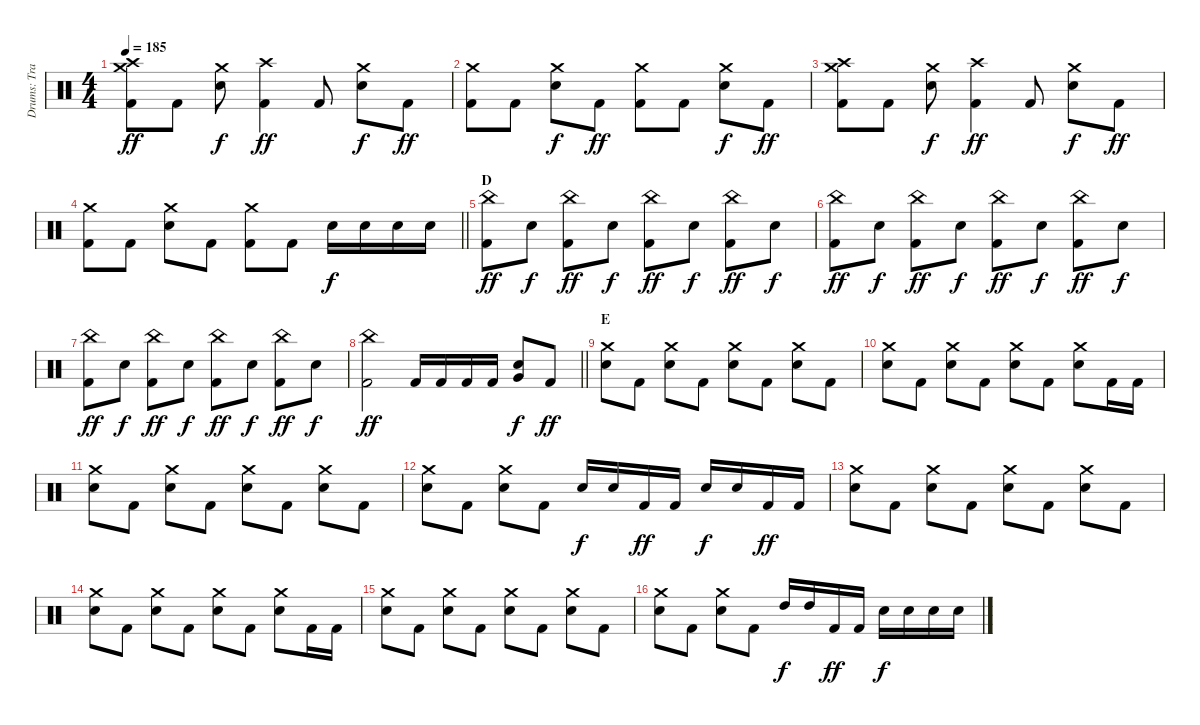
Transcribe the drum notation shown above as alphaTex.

\track ("Drums: Travis Clarke" "Drums: Tra") {instrument percussion}
\staff {score}
\articulation defaults
\ts (4 4)
\tempo 185
\clef neutral
\ks c
("Kick (hit) 2" "Crash high (hit)" "Crash medium (hit)").8{dy ff} "Kick (hit) 2".8 ("Snare (hit) 2" "Crash medium (hit)").8{dy f} ("Kick (hit) 2" "Crash high (hit)").4{dy ff} "Kick (hit) 2".8 ("Snare (hit) 2" "Crash medium (hit)").8{dy f} "Kick (hit) 2".8{dy ff} |
("Kick (hit) 2" "Crash medium (hit)").8 "Kick (hit) 2".8 ("Snare (hit) 2" "Crash medium (hit)").8{dy f} "Kick (hit) 2".8{dy ff} ("Kick (hit) 2" "Crash medium (hit)").8 "Kick (hit) 2".8 ("Snare (hit) 2" "Crash medium (hit)").8{dy f} "Kick (hit) 2".8{dy ff} |
("Kick (hit) 2" "Crash high (hit)" "Crash medium (hit)").8 "Kick (hit) 2".8 ("Snare (hit) 2" "Crash medium (hit)").8{dy f} ("Kick (hit) 2" "Crash high (hit)").4{dy ff} "Kick (hit) 2".8 ("Snare (hit) 2" "Crash medium (hit)").8{dy f} "Kick (hit) 2".8{dy ff} |
\barLineRight lightlight
("Kick (hit) 2" "Crash medium (hit)").8 "Kick (hit) 2".8 ("Snare (hit) 2" "Crash medium (hit)").8 "Kick (hit) 2".8 ("Kick (hit) 2" "Crash medium (hit)").8 "Kick (hit) 2".8 "Snare (hit) 2".16{dy f} "Snare (hit) 2".16 "Snare (hit) 2".16 "Snare (hit) 2".16 |
\section ("" "D")
("Kick (hit) 2" "China (hit)").8{dy ff} "Snare (hit) 2".8{dy f} ("Kick (hit) 2" "China (hit)").8{dy ff} "Snare (hit) 2".8{dy f} ("Kick (hit) 2" "China (hit)").8{dy ff} "Snare (hit) 2".8{dy f} ("Kick (hit) 2" "China (hit)").8{dy ff} "Snare (hit) 2".8{dy f} |
("Kick (hit) 2" "China (hit)").8{dy ff} "Snare (hit) 2".8{dy f} ("Kick (hit) 2" "China (hit)").8{dy ff} "Snare (hit) 2".8{dy f} ("Kick (hit) 2" "China (hit)").8{dy ff} "Snare (hit) 2".8{dy f} ("Kick (hit) 2" "China (hit)").8{dy ff} "Snare (hit) 2".8{dy f} |
("Kick (hit) 2" "China (hit)").8{dy ff} "Snare (hit) 2".8{dy f} ("Kick (hit) 2" "China (hit)").8{dy ff} "Snare (hit) 2".8{dy f} ("Kick (hit) 2" "China (hit)").8{dy ff} "Snare (hit) 2".8{dy f} ("Kick (hit) 2" "China (hit)").8{dy ff} "Snare (hit) 2".8{dy f} |
\barLineRight lightlight
("Kick (hit) 2" "China (hit)").2{dy ff} "Kick (hit) 2".16 "Kick (hit) 2".16 "Kick (hit) 2".16 "Kick (hit) 2".16 ("Snare (hit) 2" "Very Low Tom (hit)").8{dy f} "Kick (hit) 2".8{dy ff} |
\section ("" "E")
("Snare (hit) 2" "Crash medium (hit)").8 "Kick (hit) 2".8 ("Snare (hit) 2" "Crash medium (hit)").8 "Kick (hit) 2".8 ("Snare (hit) 2" "Crash medium (hit)").8 "Kick (hit) 2".8 ("Snare (hit) 2" "Crash medium (hit)").8 "Kick (hit) 2".8 |
("Snare (hit) 2" "Crash medium (hit)").8 "Kick (hit) 2".8 ("Snare (hit) 2" "Crash medium (hit)").8 "Kick (hit) 2".8 ("Snare (hit) 2" "Crash medium (hit)").8 "Kick (hit) 2".8 ("Snare (hit) 2" "Crash medium (hit)").8 "Kick (hit) 2".16 "Kick (hit) 2".16 |
("Snare (hit) 2" "Crash medium (hit)").8 "Kick (hit) 2".8 ("Snare (hit) 2" "Crash medium (hit)").8 "Kick (hit) 2".8 ("Snare (hit) 2" "Crash medium (hit)").8 "Kick (hit) 2".8 ("Snare (hit) 2" "Crash medium (hit)").8 "Kick (hit) 2".8 |
("Snare (hit) 2" "Crash medium (hit)").8 "Kick (hit) 2".8 ("Snare (hit) 2" "Crash medium (hit)").8 "Kick (hit) 2".8 "Snare (hit) 2".16{dy f} "Snare (hit) 2".16 "Kick (hit) 2".16{dy ff} "Kick (hit) 2".16 "Snare (hit) 2".16{dy f} "Snare (hit) 2".16 "Kick (hit) 2".16{dy ff} "Kick (hit) 2".16 |
("Snare (hit) 2" "Crash medium (hit)").8 "Kick (hit) 2".8 ("Snare (hit) 2" "Crash medium (hit)").8 "Kick (hit) 2".8 ("Snare (hit) 2" "Crash medium (hit)").8 "Kick (hit) 2".8 ("Snare (hit) 2" "Crash medium (hit)").8 "Kick (hit) 2".8 |
("Snare (hit) 2" "Crash medium (hit)").8 "Kick (hit) 2".8 ("Snare (hit) 2" "Crash medium (hit)").8 "Kick (hit) 2".8 ("Snare (hit) 2" "Crash medium (hit)").8 "Kick (hit) 2".8 ("Snare (hit) 2" "Crash medium (hit)").8 "Kick (hit) 2".16 "Kick (hit) 2".16 |
("Snare (hit) 2" "Crash medium (hit)").8 "Kick (hit) 2".8 ("Snare (hit) 2" "Crash medium (hit)").8 "Kick (hit) 2".8 ("Snare (hit) 2" "Crash medium (hit)").8 "Kick (hit) 2".8 ("Snare (hit) 2" "Crash medium (hit)").8 "Kick (hit) 2".8 |
("Snare (hit) 2" "Crash medium (hit)").8 "Kick (hit) 2".8 ("Snare (hit) 2" "Crash medium (hit)").8 "Kick (hit) 2".8 "High Tom (hit)".16{dy f} "High Tom (hit)".16 "Kick (hit) 2".16{dy ff} "Kick (hit) 2".16 "Snare (hit) 2".16{dy f} "Snare (hit) 2".16 "Snare (hit) 2".16 "Snare (hit) 2".16
